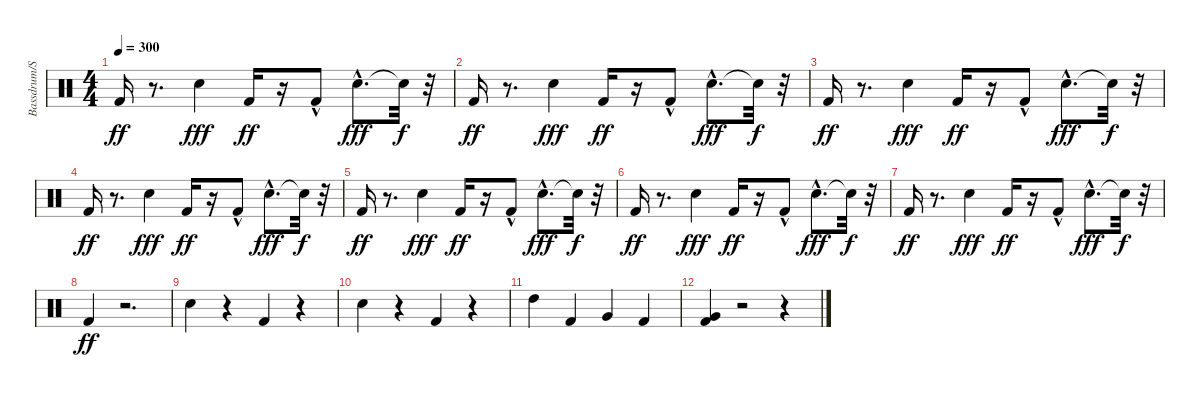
\track ("Bassdrum/Snare" "Bassdrum/S") {instrument percussion}
\staff {score}
\articulation defaults
\ts (4 4)
\tempo 300
\clef neutral
\ks c "Kick (hit) 2".16{dy ff}
r.8{d} "Snare (hit) 2".4{dy fff} "Kick (hit) 2".16{dy ff} r.16 "Kick (hit) 2"{hac}.8 "Snare (hit) 2"{hac}.8{d dy fff} "Snare (hit)"{t}.32{dy f} r.32 |
"Kick (hit) 2".16{dy ff} r.8{d} "Snare (hit) 2".4{dy fff} "Kick (hit) 2".16{dy ff} r.16 "Kick (hit) 2"{hac}.8 "Snare (hit) 2"{hac}.8{d dy fff} "Snare (hit)"{t}.32{dy f} r.32 |
"Kick (hit) 2".16{dy ff} r.8{d} "Snare (hit) 2".4{dy fff} "Kick (hit) 2".16{dy ff} r.16 "Kick (hit) 2"{hac}.8 "Snare (hit) 2"{hac}.8{d dy fff} "Snare (hit)"{t}.32{dy f} r.32 |
"Kick (hit) 2".16{dy ff} r.8{d} "Snare (hit) 2".4{dy fff} "Kick (hit) 2".16{dy ff} r.16 "Kick (hit) 2"{hac}.8 "Snare (hit) 2"{hac}.8{d dy fff} "Snare (hit)"{t}.32{dy f} r.32 |
"Kick (hit) 2".16{dy ff} r.8{d} "Snare (hit) 2".4{dy fff} "Kick (hit) 2".16{dy ff} r.16 "Kick (hit) 2"{hac}.8 "Snare (hit) 2"{hac}.8{d dy fff} "Snare (hit)"{t}.32{dy f} r.32 |
"Kick (hit) 2".16{dy ff} r.8{d} "Snare (hit) 2".4{dy fff} "Kick (hit) 2".16{dy ff} r.16 "Kick (hit) 2"{hac}.8 "Snare (hit) 2"{hac}.8{d dy fff} "Snare (hit)"{t}.32{dy f} r.32 |
"Kick (hit) 2".16{dy ff} r.8{d} "Snare (hit) 2".4{dy fff} "Kick (hit) 2".16{dy ff} r.16 "Kick (hit) 2"{hac}.8 "Snare (hit) 2"{hac}.8{d dy fff} "Snare (hit)"{t}.32{dy f} r.32 |
"Kick (hit) 2".4{dy ff} r.2{d} |
"Snare (hit) 2".4 r.4 "Kick (hit) 2".4 r.4 |
"Snare (hit) 2".4 r.4 "Kick (hit) 2".4 r.4 |
"High Tom (hit)".4 "Kick (hit) 2".4 "Very Low Tom (hit)".4 "Kick (hit) 2".4 |
("Kick (hit) 2" "Very Low Tom (hit)").4 r.2 r.4
